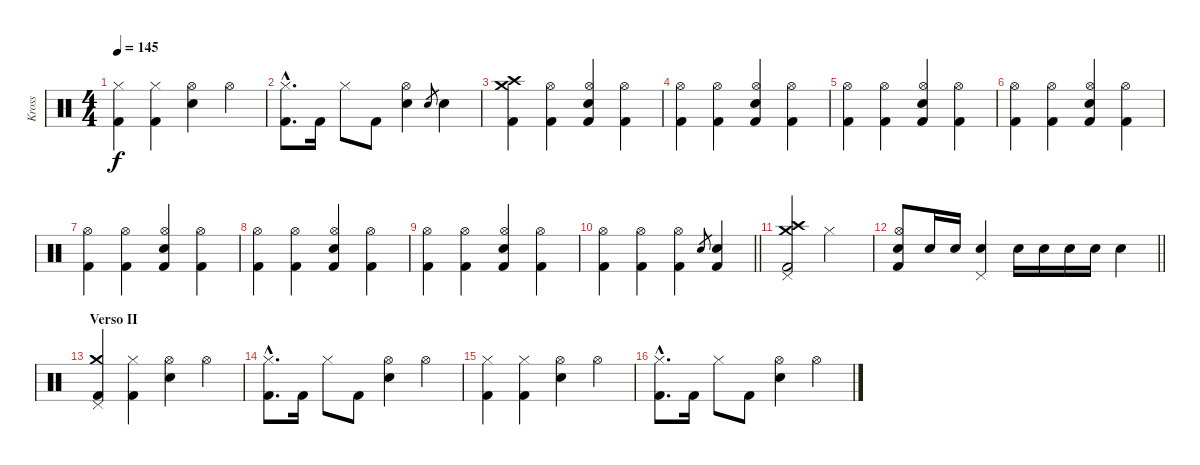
\track ("Kross" "Kross") {instrument percussion}
\staff {score}
\articulation defaults
\ts (4 4)
\tempo 145
\clef neutral
\ks c
("Hi-Hat (closed)" "Kick (hit) 2").4{dy f} ("Hi-Hat (closed)" "Kick (hit) 2").4 ("Hi-Hat (open)" "Electric Snare (hit)").4 "Hi-Hat (open)".4 |
("Hi-Hat (closed)"{hac} "Kick (hit) 2"{hac}).8{d} "Kick (hit) 2".16 "Hi-Hat (closed)".8 "Kick (hit) 2".8 ("Hi-Hat (open)" "Electric Snare (hit)").4 "Electric Snare (hit)".8{gr} "Electric Snare (hit)".4 |
("Crash medium (hit)" "Crash high (hit)" "Kick (hit) 2").4 ("Hi-Hat (open)" "Kick (hit) 2").4 ("Hi-Hat (open)" "Electric Snare (hit)" "Kick (hit) 2").4 ("Hi-Hat (open)" "Kick (hit) 2").4 |
("Hi-Hat (open)" "Kick (hit) 2").4 ("Hi-Hat (open)" "Kick (hit) 2").4 ("Hi-Hat (open)" "Electric Snare (hit)" "Kick (hit) 2").4 ("Hi-Hat (open)" "Kick (hit) 2").4 |
("Hi-Hat (open)" "Kick (hit) 2").4 ("Hi-Hat (open)" "Kick (hit) 2").4 ("Hi-Hat (open)" "Electric Snare (hit)" "Kick (hit) 2").4 ("Hi-Hat (open)" "Kick (hit) 2").4 |
("Hi-Hat (open)" "Kick (hit) 2").4 ("Hi-Hat (open)" "Kick (hit) 2").4 ("Hi-Hat (open)" "Electric Snare (hit)" "Kick (hit) 2").4 ("Hi-Hat (open)" "Kick (hit) 2").4 |
("Hi-Hat (open)" "Kick (hit) 2").4 ("Hi-Hat (open)" "Kick (hit) 2").4 ("Hi-Hat (open)" "Electric Snare (hit)" "Kick (hit) 2").4 ("Hi-Hat (open)" "Kick (hit) 2").4 |
("Hi-Hat (open)" "Kick (hit) 2").4 ("Hi-Hat (open)" "Kick (hit) 2").4 ("Hi-Hat (open)" "Electric Snare (hit)" "Kick (hit) 2").4 ("Hi-Hat (open)" "Kick (hit) 2").4 |
("Hi-Hat (open)" "Kick (hit) 2").4 ("Hi-Hat (open)" "Kick (hit) 2").4 ("Hi-Hat (open)" "Electric Snare (hit)" "Kick (hit) 2").4 ("Hi-Hat (open)" "Kick (hit) 2").4 |
\barLineRight lightlight
("Hi-Hat (open)" "Kick (hit) 2").4 ("Hi-Hat (open)" "Kick (hit) 2").4 ("Hi-Hat (open)" "Kick (hit) 2").4 "Electric Snare (hit)".8{gr} ("Electric Snare (hit)" "Kick (hit) 2").4 |
("Crash medium (hit)" "Crash high (hit)" "Pedal Hi-Hat (hit)" "Kick (hit) 2").2 "Hi-Hat (closed)".2 |
\barLineRight lightlight
("Hi-Hat (open)" "Electric Snare (hit)" "Kick (hit) 2").8 "Electric Snare (hit)".16 "Electric Snare (hit)".16 ("Pedal Hi-Hat (hit)" "Electric Snare (hit)").4 "Electric Snare (hit)".16 "Electric Snare (hit)".16 "Electric Snare (hit)".16 "Electric Snare (hit)".16 "Electric Snare (hit)".4 |
\section ("" "Verso II")
("Crash medium (hit)" "Pedal Hi-Hat (hit)" "Kick (hit) 2").4 ("Hi-Hat (closed)" "Kick (hit) 2").4 ("Hi-Hat (open)" "Electric Snare (hit)").4 "Hi-Hat (open)".4 |
("Hi-Hat (closed)"{hac} "Kick (hit) 2"{hac}).8{d} "Kick (hit) 2".16 "Hi-Hat (closed)".8 "Kick (hit) 2".8 ("Hi-Hat (open)" "Electric Snare (hit)").4 "Hi-Hat (open)".4 |
("Hi-Hat (closed)" "Kick (hit) 2").4 ("Hi-Hat (closed)" "Kick (hit) 2").4 ("Hi-Hat (open)" "Electric Snare (hit)").4 "Hi-Hat (open)".4 |
("Hi-Hat (closed)"{hac} "Kick (hit) 2"{hac}).8{d} "Kick (hit) 2".16 "Hi-Hat (closed)".8 "Kick (hit) 2".8 ("Hi-Hat (open)" "Electric Snare (hit)").4 "Hi-Hat (open)".4
